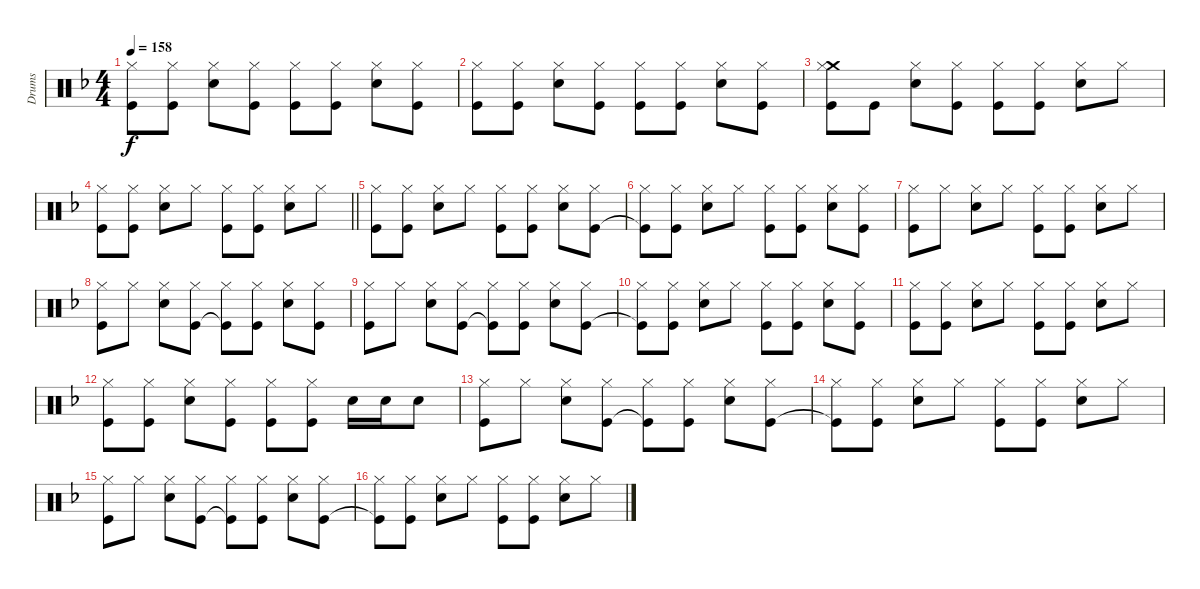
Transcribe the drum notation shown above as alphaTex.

\track ("Drums" "Drums") {instrument percussion}
\staff {score}
\articulation defaults
\ts (4 4)
\tempo 158
\clef neutral
\ks f
("Hi-Hat (closed)" "Kick (hit)").8{dy f} ("Hi-Hat (closed)" "Kick (hit)").8 ("Hi-Hat (closed)" "Snare (hit) 2").8 ("Hi-Hat (closed)" "Kick (hit)").8 ("Hi-Hat (closed)" "Kick (hit)").8 ("Hi-Hat (closed)" "Kick (hit)").8 ("Hi-Hat (closed)" "Snare (hit) 2").8 ("Hi-Hat (closed)" "Kick (hit)").8 |
("Hi-Hat (closed)" "Kick (hit)").8 ("Hi-Hat (closed)" "Kick (hit)").8 ("Hi-Hat (closed)" "Snare (hit) 2").8 ("Hi-Hat (closed)" "Kick (hit)").8 ("Hi-Hat (closed)" "Kick (hit)").8 ("Hi-Hat (closed)" "Kick (hit)").8 ("Hi-Hat (closed)" "Snare (hit) 2").8 ("Hi-Hat (closed)" "Kick (hit)").8 |
("Crash medium (hit)" "Hi-Hat (closed)" "Kick (hit)").8 "Kick (hit)".8 ("Hi-Hat (closed)" "Snare (hit) 2").8 ("Hi-Hat (closed)" "Kick (hit)").8 ("Hi-Hat (closed)" "Kick (hit)").8 ("Hi-Hat (closed)" "Kick (hit)").8 ("Hi-Hat (closed)" "Snare (hit) 2").8 "Hi-Hat (closed)".8 |
\barLineRight lightlight
("Hi-Hat (closed)" "Kick (hit)").8 ("Hi-Hat (closed)" "Kick (hit)").8 ("Hi-Hat (closed)" "Snare (hit) 2").8 "Hi-Hat (closed)".8 ("Hi-Hat (closed)" "Kick (hit)").8 ("Hi-Hat (closed)" "Kick (hit)").8 ("Hi-Hat (closed)" "Snare (hit) 2").8 "Hi-Hat (closed)".8 |
\section ("" "")
("Hi-Hat (closed)" "Kick (hit)").8 ("Hi-Hat (closed)" "Kick (hit)").8 ("Hi-Hat (closed)" "Snare (hit) 2").8 "Hi-Hat (closed)".8 ("Hi-Hat (closed)" "Kick (hit)").8 ("Hi-Hat (closed)" "Kick (hit)").8 ("Hi-Hat (closed)" "Snare (hit) 2").8 ("Hi-Hat (closed)" "Kick (hit)").8 |
("Hi-Hat (closed)" "Kick (hit)"{t}).8 ("Hi-Hat (closed)" "Kick (hit)").8 ("Hi-Hat (closed)" "Snare (hit) 2").8 "Hi-Hat (closed)".8 ("Hi-Hat (closed)" "Kick (hit)").8 ("Hi-Hat (closed)" "Kick (hit)").8 ("Hi-Hat (closed)" "Snare (hit) 2").8 ("Hi-Hat (closed)" "Kick (hit)").8 |
("Hi-Hat (closed)" "Kick (hit)").8 "Hi-Hat (closed)".8 ("Hi-Hat (closed)" "Snare (hit) 2").8 "Hi-Hat (closed)".8 ("Hi-Hat (closed)" "Kick (hit)").8 ("Hi-Hat (closed)" "Kick (hit)").8 ("Hi-Hat (closed)" "Snare (hit) 2").8 "Hi-Hat (closed)".8 |
("Hi-Hat (closed)" "Kick (hit)").8 "Hi-Hat (closed)".8 ("Hi-Hat (closed)" "Snare (hit) 2").8 ("Hi-Hat (closed)" "Kick (hit)").8 ("Hi-Hat (closed)" "Kick (hit)"{t}).8 ("Hi-Hat (closed)" "Kick (hit)").8 ("Hi-Hat (closed)" "Snare (hit) 2").8 ("Hi-Hat (closed)" "Kick (hit)").8 |
("Hi-Hat (closed)" "Kick (hit)").8 "Hi-Hat (closed)".8 ("Hi-Hat (closed)" "Snare (hit) 2").8 ("Hi-Hat (closed)" "Kick (hit)").8 ("Hi-Hat (closed)" "Kick (hit)"{t}).8 ("Hi-Hat (closed)" "Kick (hit)").8 ("Hi-Hat (closed)" "Snare (hit) 2").8 ("Hi-Hat (closed)" "Kick (hit)").8 |
("Hi-Hat (closed)" "Kick (hit)"{t}).8 ("Hi-Hat (closed)" "Kick (hit)").8 ("Hi-Hat (closed)" "Snare (hit) 2").8 "Hi-Hat (closed)".8 ("Hi-Hat (closed)" "Kick (hit)").8 ("Hi-Hat (closed)" "Kick (hit)").8 ("Hi-Hat (closed)" "Snare (hit) 2").8 ("Hi-Hat (closed)" "Kick (hit)").8 |
("Hi-Hat (closed)" "Kick (hit)").8 ("Hi-Hat (closed)" "Kick (hit)").8 ("Hi-Hat (closed)" "Snare (hit) 2").8 "Hi-Hat (closed)".8 ("Hi-Hat (closed)" "Kick (hit)").8 ("Hi-Hat (closed)" "Kick (hit)").8 ("Hi-Hat (closed)" "Snare (hit) 2").8 "Hi-Hat (closed)".8 |
("Hi-Hat (closed)" "Kick (hit)").8 ("Hi-Hat (closed)" "Kick (hit)").8 ("Hi-Hat (closed)" "Snare (hit) 2").8 ("Hi-Hat (closed)" "Kick (hit)").8 ("Hi-Hat (closed)" "Kick (hit)").8 ("Hi-Hat (closed)" "Kick (hit)").8 "Snare (hit) 2".16 "Snare (hit) 2".16 "Snare (hit) 2".8 |
("Hi-Hat (closed)" "Kick (hit)").8 "Hi-Hat (closed)".8 ("Hi-Hat (closed)" "Snare (hit) 2").8 ("Hi-Hat (closed)" "Kick (hit)").8 ("Hi-Hat (closed)" "Kick (hit)"{t}).8 ("Hi-Hat (closed)" "Kick (hit)").8 ("Hi-Hat (closed)" "Snare (hit) 2").8 ("Hi-Hat (closed)" "Kick (hit)").8 |
("Hi-Hat (closed)" "Kick (hit)"{t}).8 ("Hi-Hat (closed)" "Kick (hit)").8 ("Hi-Hat (closed)" "Snare (hit) 2").8 "Hi-Hat (closed)".8 ("Hi-Hat (closed)" "Kick (hit)").8 ("Hi-Hat (closed)" "Kick (hit)").8 ("Hi-Hat (closed)" "Snare (hit) 2").8 "Hi-Hat (closed)".8 |
("Hi-Hat (closed)" "Kick (hit)").8 "Hi-Hat (closed)".8 ("Hi-Hat (closed)" "Snare (hit) 2").8 ("Hi-Hat (closed)" "Kick (hit)").8 ("Hi-Hat (closed)" "Kick (hit)"{t}).8 ("Hi-Hat (closed)" "Kick (hit)").8 ("Hi-Hat (closed)" "Snare (hit) 2").8 ("Hi-Hat (closed)" "Kick (hit)").8 |
("Hi-Hat (closed)" "Kick (hit)"{t}).8 ("Hi-Hat (closed)" "Kick (hit)").8 ("Hi-Hat (closed)" "Snare (hit) 2").8 "Hi-Hat (closed)".8 ("Hi-Hat (closed)" "Kick (hit)").8 ("Hi-Hat (closed)" "Kick (hit)").8 ("Hi-Hat (closed)" "Snare (hit) 2").8 "Hi-Hat (closed)".8
